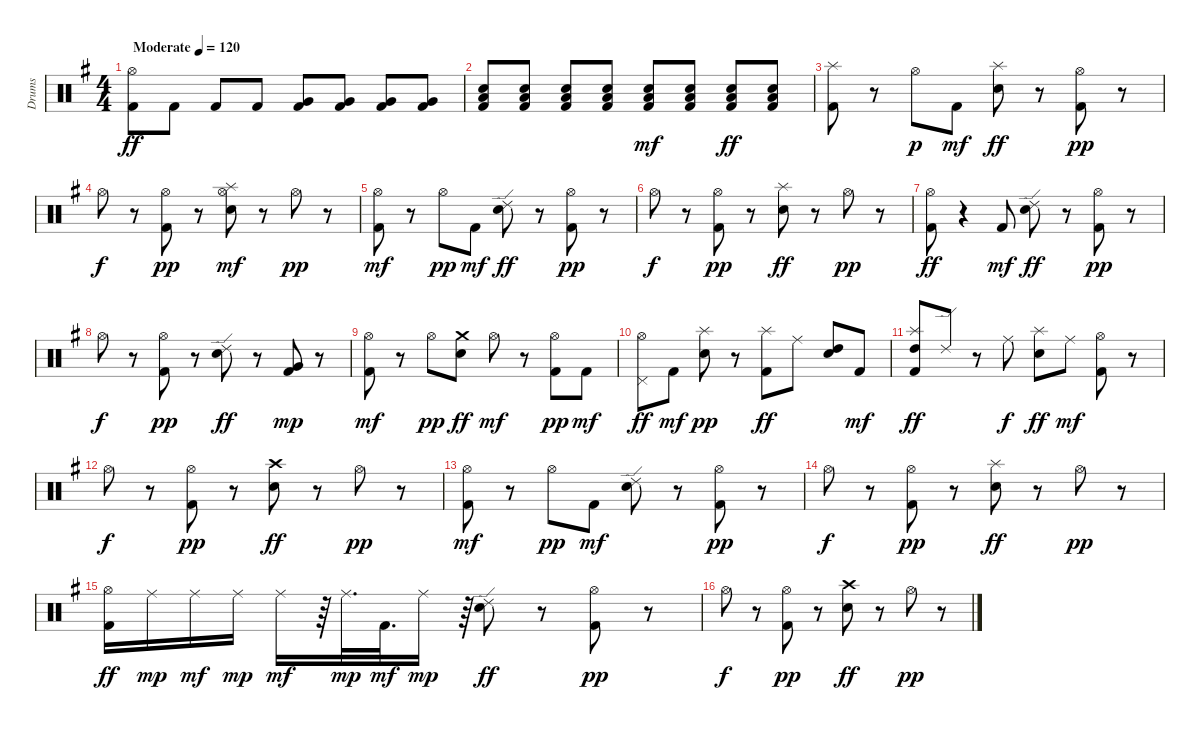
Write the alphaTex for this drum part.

\track ("Drums" "Drums") {instrument percussion}
\staff {score}
\articulation defaults
\ts (4 4)
\tempo (120 "Moderate")
\clef neutral
\ks eminor
("Kick (hit) 2" "Hi-Hat (open)").8{dy ff} "Kick (hit) 2".8 "Kick (hit) 2".8 "Kick (hit) 2".8 ("Kick (hit) 2" "Very Low Tom (hit)").8 ("Kick (hit) 2" "Very Low Tom (hit)").8 ("Kick (hit) 2" "Very Low Tom (hit)").8 ("Kick (hit) 2" "Very Low Tom (hit)").8 |
("Snare (hit) 2" "Low Floor Tom (hit)" "Kick (hit) 2").8 ("Kick (hit) 2" "Snare (hit) 2" "Low Floor Tom (hit)").8 ("Snare (hit) 2" "Low Floor Tom (hit)" "Kick (hit) 2").8 ("Kick (hit) 2" "Snare (hit) 2" "Low Floor Tom (hit)").8 ("Kick (hit) 2" "Snare (hit) 2" "Low Floor Tom (hit)").8{dy mf} ("Kick (hit) 2" "Snare (hit) 2" "Low Floor Tom (hit)").8 ("Kick (hit) 2" "Snare (hit) 2" "Low Floor Tom (hit)").8{dy ff} ("Kick (hit) 2" "Low Floor Tom (hit)" "Snare (hit) 2").8 |
("Kick (hit) 2" "Splash (hit)").8 r.8 "Hi-Hat (open)".8{dy p} "Kick (hit) 2".8{dy mf} ("Snare (hit) 2" "Splash (hit)").8{dy ff} r.8 ("Kick (hit) 2" "Hi-Hat (open)").8{dy pp} r.8 |
"Hi-Hat (open)".8{dy f} r.8 ("Kick (hit) 2" "Hi-Hat (open)").8{dy pp} r.8 ("Snare (hit) 2" "Splash (hit)" "Hi-Hat (open)").8{dy mf} r.8 "Hi-Hat (open)".8{dy pp} r.8 |
("Kick (hit) 2" "Hi-Hat (open)").8{dy mf} r.8 "Hi-Hat (open)".8{dy pp} "Kick (hit) 2".8{dy mf} ("Ride (edge) 2" "Snare (hit) 2").8{dy ff} r.8 ("Kick (hit) 2" "Hi-Hat (open)").8{dy pp} r.8 |
"Hi-Hat (open)".8{dy f} r.8 ("Kick (hit) 2" "Hi-Hat (open)").8{dy pp} r.8 ("Snare (hit) 2" "Splash (hit)").8{dy ff} r.8 "Hi-Hat (open)".8{dy pp} r.8 |
("Kick (hit) 2" "Hi-Hat (open)").8{dy ff} r.4 "Kick (hit) 2".8{dy mf} ("Snare (hit) 2" "Ride (edge) 2").8{dy ff} r.8 ("Kick (hit) 2" "Hi-Hat (open)").8{dy pp} r.8 |
"Hi-Hat (open)".8{dy f} r.8 ("Kick (hit) 2" "Hi-Hat (open)").8{dy pp} r.8 ("Snare (hit) 2" "Ride (edge) 2").8{dy ff} r.8 ("Kick (hit) 2" "Very Low Tom (hit)").8{dy mp} r.8 |
("Kick (hit) 2" "Hi-Hat (open)").8{dy mf} r.8 "Hi-Hat (open)".8{dy pp} ("Snare (hit) 2" "Crash medium (hit)").8{dy ff} "Hi-Hat (open)".8{dy mf} r.8 ("Kick (hit) 2" "Hi-Hat (open)").8{dy pp} "Kick (hit) 2".8{dy mf} |
("Pedal Hi-Hat (hit)" "Hi-Hat (open)").8{dy ff} "Kick (hit) 2".8{dy mf} ("Snare (hit) 2" "Splash (hit)").8{dy pp} r.8 ("Kick (hit) 2" "Splash (hit)").8{dy ff} "Ride (middle)".8 ("Snare (hit) 2" "High Tom (hit)").8 "Kick (hit) 2".8{dy mf} |
("Kick (hit) 2" "Splash (hit)" "High Tom (hit)").8{dy ff} "Ride (edge) 2".8 r.8 "Ride (middle)".8{dy f} ("Splash (hit)" "Snare (hit) 2").8{dy ff} "Ride (middle)".8{dy mf} ("Kick (hit) 2" "Hi-Hat (open)").8 r.8 |
"Hi-Hat (open)".8{dy f} r.8 ("Kick (hit) 2" "Hi-Hat (open)").8{dy pp} r.8 ("Snare (hit) 2" "Crash high (hit)").8{dy ff} r.8 "Hi-Hat (open)".8{dy pp} r.8 |
("Kick (hit) 2" "Hi-Hat (open)").8{dy mf} r.8 "Hi-Hat (open)".8{dy pp} "Kick (hit) 2".8{dy mf} ("Snare (hit) 2" "Ride (edge) 2").8 r.8 ("Kick (hit) 2" "Hi-Hat (open)").8{dy pp} r.8 |
"Hi-Hat (open)".8{dy f} r.8 ("Kick (hit) 2" "Hi-Hat (open)").8{dy pp} r.8 ("Snare (hit) 2" "Splash (hit)").8{dy ff} r.8 "Hi-Hat (open)".8{dy pp} r.8 |
("Kick (hit) 2" "Hi-Hat (open)").16{dy ff} "Ride (middle)".16{dy mp} "Ride (middle)".16{dy mf} "Ride (middle)".16{dy mp} "Ride (middle)".16{dy mf} r.64 "Ride (middle)".32{d dy mp} "Kick (hit) 2".32{d dy mf} "Ride (middle)".16{dy mp} r.64 ("Snare (hit) 2" "Ride (edge) 2").8{dy ff} r.8 ("Kick (hit) 2" "Hi-Hat (open)").8{dy pp} r.8 |
"Hi-Hat (open)".8{dy f} r.8 ("Kick (hit) 2" "Hi-Hat (open)").8{dy pp} r.8 ("Crash high (hit)" "Snare (hit) 2").8{dy ff} r.8 "Hi-Hat (open)".8{dy pp} r.8
